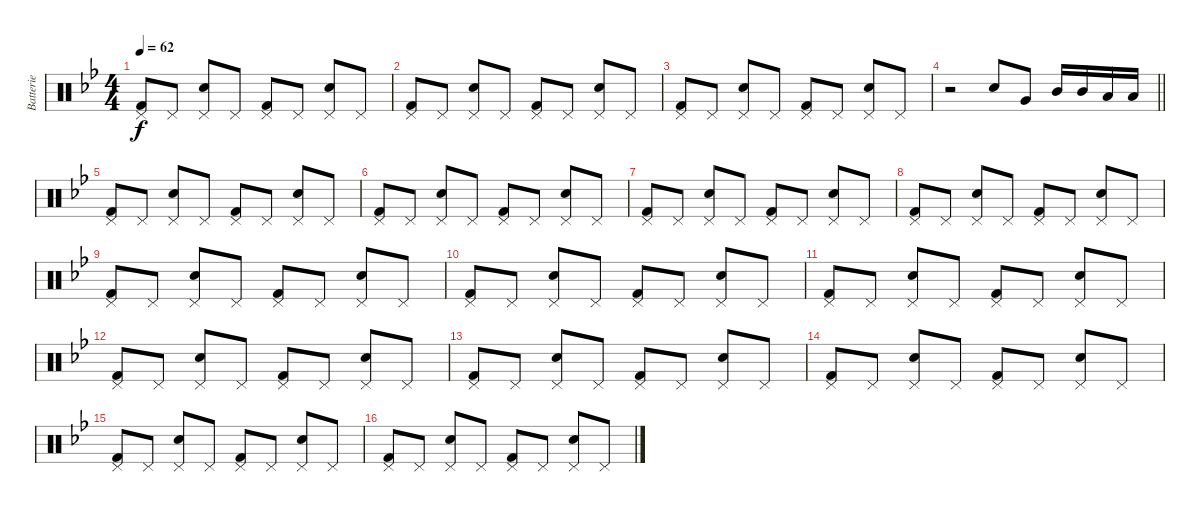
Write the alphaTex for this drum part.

\track ("Batterie" "Batterie") {instrument percussion}
\staff {score}
\articulation defaults
\ts (4 4)
\tempo 62
\clef neutral
\ks bb
("Kick (hit) 2" "Pedal Hi-Hat (hit)").8{dy f} "Pedal Hi-Hat (hit)".8 ("Pedal Hi-Hat (hit)" "Snare (hit) 2").8 "Pedal Hi-Hat (hit)".8 ("Kick (hit) 2" "Pedal Hi-Hat (hit)").8 "Pedal Hi-Hat (hit)".8 ("Pedal Hi-Hat (hit)" "Snare (hit) 2").8 "Pedal Hi-Hat (hit)".8 |
("Kick (hit) 2" "Pedal Hi-Hat (hit)").8 "Pedal Hi-Hat (hit)".8 ("Pedal Hi-Hat (hit)" "Snare (hit) 2").8 "Pedal Hi-Hat (hit)".8 ("Kick (hit) 2" "Pedal Hi-Hat (hit)").8 "Pedal Hi-Hat (hit)".8 ("Pedal Hi-Hat (hit)" "Snare (hit) 2").8 "Pedal Hi-Hat (hit)".8 |
("Kick (hit) 2" "Pedal Hi-Hat (hit)").8 "Pedal Hi-Hat (hit)".8 ("Pedal Hi-Hat (hit)" "Snare (hit) 2").8 "Pedal Hi-Hat (hit)".8 ("Kick (hit) 2" "Pedal Hi-Hat (hit)").8 "Pedal Hi-Hat (hit)".8 ("Pedal Hi-Hat (hit)" "Snare (hit) 2").8 "Pedal Hi-Hat (hit)".8 |
\barLineRight lightlight
r.2 "Snare (hit) 2".8 "Very Low Tom (hit)".8 "Mid Tom (hit)".16 "Mid Tom (hit)".16 "Low Tom (hit)".16 "Low Tom (hit)".16 |
("Kick (hit) 2" "Pedal Hi-Hat (hit)").8 "Pedal Hi-Hat (hit)".8 ("Pedal Hi-Hat (hit)" "Snare (hit) 2").8 "Pedal Hi-Hat (hit)".8 ("Kick (hit) 2" "Pedal Hi-Hat (hit)").8 "Pedal Hi-Hat (hit)".8 ("Pedal Hi-Hat (hit)" "Snare (hit) 2").8 "Pedal Hi-Hat (hit)".8 |
("Kick (hit) 2" "Pedal Hi-Hat (hit)").8 "Pedal Hi-Hat (hit)".8 ("Pedal Hi-Hat (hit)" "Snare (hit) 2").8 "Pedal Hi-Hat (hit)".8 ("Kick (hit) 2" "Pedal Hi-Hat (hit)").8 "Pedal Hi-Hat (hit)".8 ("Pedal Hi-Hat (hit)" "Snare (hit) 2").8 "Pedal Hi-Hat (hit)".8 |
("Kick (hit) 2" "Pedal Hi-Hat (hit)").8 "Pedal Hi-Hat (hit)".8 ("Pedal Hi-Hat (hit)" "Snare (hit) 2").8 "Pedal Hi-Hat (hit)".8 ("Kick (hit) 2" "Pedal Hi-Hat (hit)").8 "Pedal Hi-Hat (hit)".8 ("Pedal Hi-Hat (hit)" "Snare (hit) 2").8 "Pedal Hi-Hat (hit)".8 |
("Kick (hit) 2" "Pedal Hi-Hat (hit)").8 "Pedal Hi-Hat (hit)".8 ("Pedal Hi-Hat (hit)" "Snare (hit) 2").8 "Pedal Hi-Hat (hit)".8 ("Kick (hit) 2" "Pedal Hi-Hat (hit)").8 "Pedal Hi-Hat (hit)".8 ("Pedal Hi-Hat (hit)" "Snare (hit) 2").8 "Pedal Hi-Hat (hit)".8 |
("Kick (hit) 2" "Pedal Hi-Hat (hit)").8 "Pedal Hi-Hat (hit)".8 ("Pedal Hi-Hat (hit)" "Snare (hit) 2").8 "Pedal Hi-Hat (hit)".8 ("Kick (hit) 2" "Pedal Hi-Hat (hit)").8 "Pedal Hi-Hat (hit)".8 ("Pedal Hi-Hat (hit)" "Snare (hit) 2").8 "Pedal Hi-Hat (hit)".8 |
("Kick (hit) 2" "Pedal Hi-Hat (hit)").8 "Pedal Hi-Hat (hit)".8 ("Pedal Hi-Hat (hit)" "Snare (hit) 2").8 "Pedal Hi-Hat (hit)".8 ("Kick (hit) 2" "Pedal Hi-Hat (hit)").8 "Pedal Hi-Hat (hit)".8 ("Pedal Hi-Hat (hit)" "Snare (hit) 2").8 "Pedal Hi-Hat (hit)".8 |
("Kick (hit) 2" "Pedal Hi-Hat (hit)").8 "Pedal Hi-Hat (hit)".8 ("Pedal Hi-Hat (hit)" "Snare (hit) 2").8 "Pedal Hi-Hat (hit)".8 ("Kick (hit) 2" "Pedal Hi-Hat (hit)").8 "Pedal Hi-Hat (hit)".8 ("Pedal Hi-Hat (hit)" "Snare (hit) 2").8 "Pedal Hi-Hat (hit)".8 |
("Kick (hit) 2" "Pedal Hi-Hat (hit)").8 "Pedal Hi-Hat (hit)".8 ("Pedal Hi-Hat (hit)" "Snare (hit) 2").8 "Pedal Hi-Hat (hit)".8 ("Kick (hit) 2" "Pedal Hi-Hat (hit)").8 "Pedal Hi-Hat (hit)".8 ("Pedal Hi-Hat (hit)" "Snare (hit) 2").8 "Pedal Hi-Hat (hit)".8 |
("Kick (hit) 2" "Pedal Hi-Hat (hit)").8 "Pedal Hi-Hat (hit)".8 ("Pedal Hi-Hat (hit)" "Snare (hit) 2").8 "Pedal Hi-Hat (hit)".8 ("Kick (hit) 2" "Pedal Hi-Hat (hit)").8 "Pedal Hi-Hat (hit)".8 ("Pedal Hi-Hat (hit)" "Snare (hit) 2").8 "Pedal Hi-Hat (hit)".8 |
("Kick (hit) 2" "Pedal Hi-Hat (hit)").8 "Pedal Hi-Hat (hit)".8 ("Pedal Hi-Hat (hit)" "Snare (hit) 2").8 "Pedal Hi-Hat (hit)".8 ("Kick (hit) 2" "Pedal Hi-Hat (hit)").8 "Pedal Hi-Hat (hit)".8 ("Pedal Hi-Hat (hit)" "Snare (hit) 2").8 "Pedal Hi-Hat (hit)".8 |
("Kick (hit) 2" "Pedal Hi-Hat (hit)").8 "Pedal Hi-Hat (hit)".8 ("Pedal Hi-Hat (hit)" "Snare (hit) 2").8 "Pedal Hi-Hat (hit)".8 ("Kick (hit) 2" "Pedal Hi-Hat (hit)").8 "Pedal Hi-Hat (hit)".8 ("Pedal Hi-Hat (hit)" "Snare (hit) 2").8 "Pedal Hi-Hat (hit)".8 |
("Kick (hit) 2" "Pedal Hi-Hat (hit)").8 "Pedal Hi-Hat (hit)".8 ("Pedal Hi-Hat (hit)" "Snare (hit) 2").8 "Pedal Hi-Hat (hit)".8 ("Kick (hit) 2" "Pedal Hi-Hat (hit)").8 "Pedal Hi-Hat (hit)".8 ("Pedal Hi-Hat (hit)" "Snare (hit) 2").8 "Pedal Hi-Hat (hit)".8
